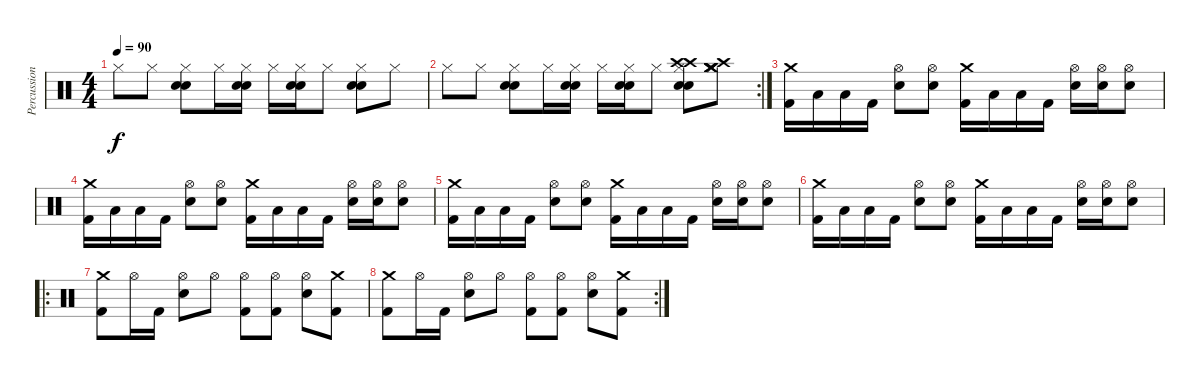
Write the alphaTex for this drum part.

\track ("Percussion" "Percussion") {instrument percussion}
\staff {score}
\articulation defaults
\ts (4 4)
\tempo 90
\clef neutral
\ks c "Hi-Hat (closed)".8{dy f} "Hi-Hat (closed)".8
("Hi-Hat (closed)" "Snare (hit) 2" "Snare (hit) 2").8 "Hi-Hat (closed)".16 ("Hi-Hat (closed)" "Snare (hit) 2" "Snare (hit) 2").16 "Hi-Hat (closed)".16 ("Hi-Hat (closed)" "Snare (hit) 2" "Snare (hit) 2").16 "Hi-Hat (closed)".8 ("Hi-Hat (closed)" "Snare (hit) 2" "Snare (hit) 2").8 "Hi-Hat (closed)".8 |
\rc 2 "Hi-Hat (closed)".8 "Hi-Hat (closed)".8
("Hi-Hat (closed)" "Snare (hit) 2" "Snare (hit) 2").8 "Hi-Hat (closed)".16 ("Hi-Hat (closed)" "Snare (hit) 2" "Snare (hit) 2").16 "Hi-Hat (closed)".16 ("Hi-Hat (closed)" "Snare (hit) 2" "Snare (hit) 2").16 "Hi-Hat (closed)".8 ("Hi-Hat (closed)" "Snare (hit) 2" "Snare (hit) 2" "Crash high (hit)" "Crash high (hit)").8 ("Hi-Hat (closed)" "Crash medium (hit)" "Crash medium (hit)" "Crash medium (hit)" "Crash high (hit)").8 |
("Crash medium (hit)" "Kick (hit) 2").16 "Low Tom (hit)".16 "Low Floor Tom (hit)".16 "Kick (hit) 2".16 ("Hi-Hat (open)" "Electric Snare (hit)").8 ("Hi-Hat (open)" "Electric Snare (hit)").8 ("Crash medium (hit)" "Kick (hit) 2").16 "Low Tom (hit)".16 "Low Floor Tom (hit)".16 "Kick (hit) 2".16 ("Hi-Hat (open)" "Electric Snare (hit)").16 ("Hi-Hat (open)" "Electric Snare (hit)").16 ("Hi-Hat (open)" "Electric Snare (hit)").8 |
("Crash medium (hit)" "Kick (hit) 2").16 "Low Tom (hit)".16 "Low Floor Tom (hit)".16 "Kick (hit) 2".16 ("Hi-Hat (open)" "Electric Snare (hit)").8 ("Hi-Hat (open)" "Electric Snare (hit)").8 ("Crash medium (hit)" "Kick (hit) 2").16 "Low Tom (hit)".16 "Low Floor Tom (hit)".16 "Kick (hit) 2".16 ("Hi-Hat (open)" "Electric Snare (hit)").16 ("Hi-Hat (open)" "Electric Snare (hit)").16 ("Hi-Hat (open)" "Electric Snare (hit)").8 |
("Crash medium (hit)" "Kick (hit) 2").16 "Low Tom (hit)".16 "Low Floor Tom (hit)".16 "Kick (hit) 2".16 ("Hi-Hat (open)" "Electric Snare (hit)").8 ("Hi-Hat (open)" "Electric Snare (hit)").8 ("Crash medium (hit)" "Kick (hit) 2").16 "Low Tom (hit)".16 "Low Floor Tom (hit)".16 "Kick (hit) 2".16 ("Hi-Hat (open)" "Electric Snare (hit)").16 ("Hi-Hat (open)" "Electric Snare (hit)").16 ("Hi-Hat (open)" "Electric Snare (hit)").8 |
("Crash medium (hit)" "Kick (hit) 2").16 "Low Tom (hit)".16 "Low Floor Tom (hit)".16 "Kick (hit) 2".16 ("Hi-Hat (open)" "Electric Snare (hit)").8 ("Hi-Hat (open)" "Electric Snare (hit)").8 ("Crash medium (hit)" "Kick (hit) 2").16 "Low Tom (hit)".16 "Low Floor Tom (hit)".16 "Kick (hit) 2".16 ("Hi-Hat (open)" "Electric Snare (hit)").16 ("Hi-Hat (open)" "Electric Snare (hit)").16 ("Hi-Hat (open)" "Electric Snare (hit)").8 |
\ro
("Crash medium (hit)" "Kick (hit) 2").8 "Hi-Hat (open)".16 "Kick (hit) 2".16 ("Hi-Hat (open)" "Electric Snare (hit)").8 "Hi-Hat (open)".8 ("Hi-Hat (open)" "Kick (hit) 2").8 ("Hi-Hat (open)" "Kick (hit) 2").8 ("Hi-Hat (open)" "Electric Snare (hit)").8 ("Crash medium (hit)" "Kick (hit) 2").8 |
\rc 2
("Crash medium (hit)" "Kick (hit) 2").8 "Hi-Hat (open)".16 "Kick (hit) 2".16 ("Hi-Hat (open)" "Electric Snare (hit)").8 "Hi-Hat (open)".8 ("Hi-Hat (open)" "Kick (hit) 2").8 ("Hi-Hat (open)" "Kick (hit) 2").8 ("Hi-Hat (open)" "Electric Snare (hit)").8 ("Crash medium (hit)" "Kick (hit) 2").8
